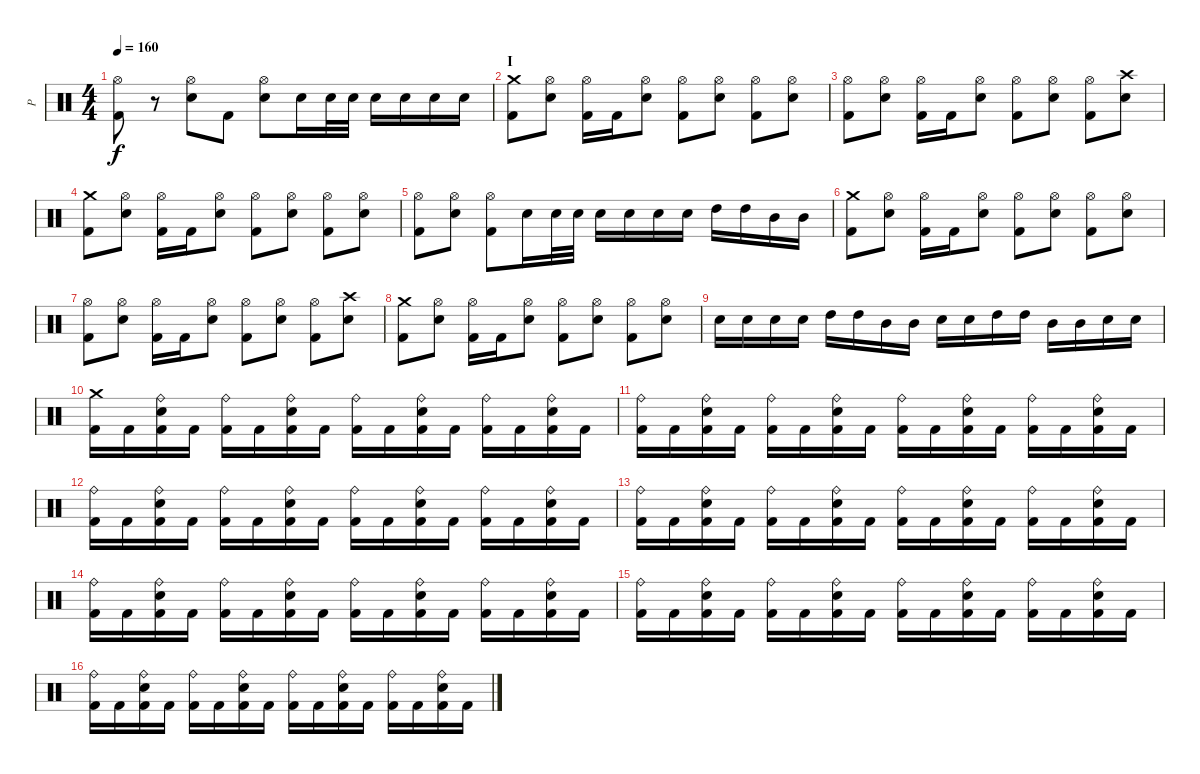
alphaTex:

\track ("P" "P") {instrument percussion}
\staff {score}
\articulation defaults
\ts (4 4)
\tempo 160
\clef neutral
\ks c
("Hi-Hat (open)" "Kick (hit) 2").8{dy f} r.8 ("Hi-Hat (open)" "Electric Snare (hit)").8 "Kick (hit) 2".8 ("Hi-Hat (open)" "Electric Snare (hit)").8 "Electric Snare (hit)".16 "Electric Snare (hit)".32 "Electric Snare (hit)".32 "Electric Snare (hit)".16 "Electric Snare (hit)".16 "Electric Snare (hit)".16 "Electric Snare (hit)".16 |
\section ("" "I")
("Crash medium (hit)" "Kick (hit) 2").8 ("Hi-Hat (open)" "Electric Snare (hit)").8 ("Hi-Hat (open)" "Kick (hit) 2").16 "Kick (hit) 2".16 ("Hi-Hat (open)" "Electric Snare (hit)").8 ("Hi-Hat (open)" "Kick (hit) 2").8 ("Hi-Hat (open)" "Electric Snare (hit)").8 ("Hi-Hat (open)" "Kick (hit) 2").8 ("Hi-Hat (open)" "Electric Snare (hit)").8 |
("Hi-Hat (open)" "Kick (hit) 2").8 ("Hi-Hat (open)" "Electric Snare (hit)").8 ("Hi-Hat (open)" "Kick (hit) 2").16 "Kick (hit) 2".16 ("Hi-Hat (open)" "Electric Snare (hit)").8 ("Hi-Hat (open)" "Kick (hit) 2").8 ("Hi-Hat (open)" "Electric Snare (hit)").8 ("Hi-Hat (open)" "Kick (hit) 2").8 ("Crash high (hit)" "Electric Snare (hit)").8 |
("Crash medium (hit)" "Kick (hit) 2").8 ("Hi-Hat (open)" "Electric Snare (hit)").8 ("Hi-Hat (open)" "Kick (hit) 2").16 "Kick (hit) 2".16 ("Hi-Hat (open)" "Electric Snare (hit)").8 ("Hi-Hat (open)" "Kick (hit) 2").8 ("Hi-Hat (open)" "Electric Snare (hit)").8 ("Hi-Hat (open)" "Kick (hit) 2").8 ("Hi-Hat (open)" "Electric Snare (hit)").8 |
("Hi-Hat (open)" "Kick (hit) 2").8 ("Hi-Hat (open)" "Electric Snare (hit)").8 ("Hi-Hat (open)" "Kick (hit) 2").8 "Electric Snare (hit)".16 "Electric Snare (hit)".32 "Electric Snare (hit)".32 "Electric Snare (hit)".16 "Electric Snare (hit)".16 "Electric Snare (hit)".16 "Electric Snare (hit)".16 "High Tom (hit)".16 "High Tom (hit)".16 "Mid Tom (hit)".16 "Mid Tom (hit)".16 |
("Crash medium (hit)" "Kick (hit) 2").8 ("Hi-Hat (open)" "Electric Snare (hit)").8 ("Hi-Hat (open)" "Kick (hit) 2").16 "Kick (hit) 2".16 ("Hi-Hat (open)" "Electric Snare (hit)").8 ("Hi-Hat (open)" "Kick (hit) 2").8 ("Hi-Hat (open)" "Electric Snare (hit)").8 ("Hi-Hat (open)" "Kick (hit) 2").8 ("Hi-Hat (open)" "Electric Snare (hit)").8 |
("Hi-Hat (open)" "Kick (hit) 2").8 ("Hi-Hat (open)" "Electric Snare (hit)").8 ("Hi-Hat (open)" "Kick (hit) 2").16 "Kick (hit) 2".16 ("Hi-Hat (open)" "Electric Snare (hit)").8 ("Hi-Hat (open)" "Kick (hit) 2").8 ("Hi-Hat (open)" "Electric Snare (hit)").8 ("Hi-Hat (open)" "Kick (hit) 2").8 ("Crash high (hit)" "Electric Snare (hit)").8 |
("Crash medium (hit)" "Kick (hit) 2").8 ("Hi-Hat (open)" "Electric Snare (hit)").8 ("Hi-Hat (open)" "Kick (hit) 2").16 "Kick (hit) 2".16 ("Hi-Hat (open)" "Electric Snare (hit)").8 ("Hi-Hat (open)" "Kick (hit) 2").8 ("Hi-Hat (open)" "Electric Snare (hit)").8 ("Hi-Hat (open)" "Kick (hit) 2").8 ("Hi-Hat (open)" "Electric Snare (hit)").8 |
"Electric Snare (hit)".16 "Electric Snare (hit)".16 "Electric Snare (hit)".16 "Electric Snare (hit)".16 "High Tom (hit)".16 "High Tom (hit)".16 "Mid Tom (hit)".16 "Mid Tom (hit)".16 "Electric Snare (hit)".16 "Electric Snare (hit)".16 "High Tom (hit)".16 "High Tom (hit)".16 "Mid Tom (hit)".16 "Mid Tom (hit)".16 "Electric Snare (hit)".16 "Electric Snare (hit)".16 |
("Crash medium (hit)" "Kick (hit) 2").16 "Kick (hit) 2".16 ("Ride (bell)" "Electric Snare (hit)" "Kick (hit) 2").16 "Kick (hit) 2".16 ("Ride (bell)" "Kick (hit) 2").16 "Kick (hit) 2".16 ("Ride (bell)" "Electric Snare (hit)" "Kick (hit) 2").16 "Kick (hit) 2".16 ("Ride (bell)" "Kick (hit) 2").16 "Kick (hit) 2".16 ("Ride (bell)" "Electric Snare (hit)" "Kick (hit) 2").16 "Kick (hit) 2".16 ("Ride (bell)" "Kick (hit) 2").16 "Kick (hit) 2".16 ("Ride (bell)" "Electric Snare (hit)" "Kick (hit) 2").16 "Kick (hit) 2".16 |
("Ride (bell)" "Kick (hit) 2").16 "Kick (hit) 2".16 ("Ride (bell)" "Electric Snare (hit)" "Kick (hit) 2").16 "Kick (hit) 2".16 ("Ride (bell)" "Kick (hit) 2").16 "Kick (hit) 2".16 ("Ride (bell)" "Electric Snare (hit)" "Kick (hit) 2").16 "Kick (hit) 2".16 ("Ride (bell)" "Kick (hit) 2").16 "Kick (hit) 2".16 ("Ride (bell)" "Electric Snare (hit)" "Kick (hit) 2").16 "Kick (hit) 2".16 ("Ride (bell)" "Kick (hit) 2").16 "Kick (hit) 2".16 ("Ride (bell)" "Electric Snare (hit)" "Kick (hit) 2").16 "Kick (hit) 2".16 |
("Ride (bell)" "Kick (hit) 2").16 "Kick (hit) 2".16 ("Ride (bell)" "Electric Snare (hit)" "Kick (hit) 2").16 "Kick (hit) 2".16 ("Ride (bell)" "Kick (hit) 2").16 "Kick (hit) 2".16 ("Ride (bell)" "Electric Snare (hit)" "Kick (hit) 2").16 "Kick (hit) 2".16 ("Ride (bell)" "Kick (hit) 2").16 "Kick (hit) 2".16 ("Ride (bell)" "Electric Snare (hit)" "Kick (hit) 2").16 "Kick (hit) 2".16 ("Ride (bell)" "Kick (hit) 2").16 "Kick (hit) 2".16 ("Ride (bell)" "Electric Snare (hit)" "Kick (hit) 2").16 "Kick (hit) 2".16 |
("Ride (bell)" "Kick (hit) 2").16 "Kick (hit) 2".16 ("Ride (bell)" "Electric Snare (hit)" "Kick (hit) 2").16 "Kick (hit) 2".16 ("Ride (bell)" "Kick (hit) 2").16 "Kick (hit) 2".16 ("Ride (bell)" "Electric Snare (hit)" "Kick (hit) 2").16 "Kick (hit) 2".16 ("Ride (bell)" "Kick (hit) 2").16 "Kick (hit) 2".16 ("Ride (bell)" "Electric Snare (hit)" "Kick (hit) 2").16 "Kick (hit) 2".16 ("Ride (bell)" "Kick (hit) 2").16 "Kick (hit) 2".16 ("Ride (bell)" "Electric Snare (hit)" "Kick (hit) 2").16 "Kick (hit) 2".16 |
("Ride (bell)" "Kick (hit) 2").16 "Kick (hit) 2".16 ("Ride (bell)" "Electric Snare (hit)" "Kick (hit) 2").16 "Kick (hit) 2".16 ("Ride (bell)" "Kick (hit) 2").16 "Kick (hit) 2".16 ("Ride (bell)" "Electric Snare (hit)" "Kick (hit) 2").16 "Kick (hit) 2".16 ("Ride (bell)" "Kick (hit) 2").16 "Kick (hit) 2".16 ("Ride (bell)" "Electric Snare (hit)" "Kick (hit) 2").16 "Kick (hit) 2".16 ("Ride (bell)" "Kick (hit) 2").16 "Kick (hit) 2".16 ("Ride (bell)" "Electric Snare (hit)" "Kick (hit) 2").16 "Kick (hit) 2".16 |
("Ride (bell)" "Kick (hit) 2").16 "Kick (hit) 2".16 ("Ride (bell)" "Electric Snare (hit)" "Kick (hit) 2").16 "Kick (hit) 2".16 ("Ride (bell)" "Kick (hit) 2").16 "Kick (hit) 2".16 ("Ride (bell)" "Electric Snare (hit)" "Kick (hit) 2").16 "Kick (hit) 2".16 ("Ride (bell)" "Kick (hit) 2").16 "Kick (hit) 2".16 ("Ride (bell)" "Electric Snare (hit)" "Kick (hit) 2").16 "Kick (hit) 2".16 ("Ride (bell)" "Kick (hit) 2").16 "Kick (hit) 2".16 ("Ride (bell)" "Electric Snare (hit)" "Kick (hit) 2").16 "Kick (hit) 2".16 |
("Ride (bell)" "Kick (hit) 2").16 "Kick (hit) 2".16 ("Ride (bell)" "Electric Snare (hit)" "Kick (hit) 2").16 "Kick (hit) 2".16 ("Ride (bell)" "Kick (hit) 2").16 "Kick (hit) 2".16 ("Ride (bell)" "Electric Snare (hit)" "Kick (hit) 2").16 "Kick (hit) 2".16 ("Ride (bell)" "Kick (hit) 2").16 "Kick (hit) 2".16 ("Ride (bell)" "Electric Snare (hit)" "Kick (hit) 2").16 "Kick (hit) 2".16 ("Ride (bell)" "Kick (hit) 2").16 "Kick (hit) 2".16 ("Ride (bell)" "Electric Snare (hit)" "Kick (hit) 2").16 "Kick (hit) 2".16
